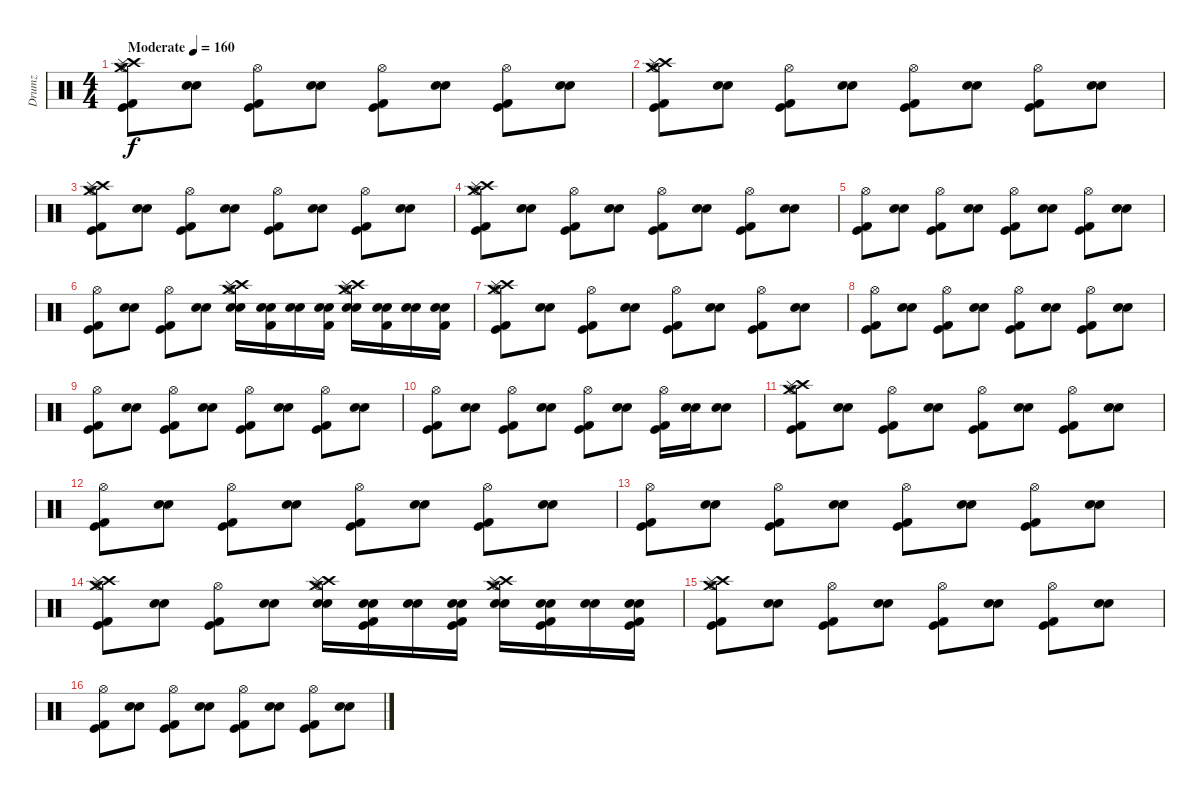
\track ("Drumz" "Drumz") {instrument percussion}
\staff {score}
\articulation defaults
\ts (4 4)
\tempo (160 "Moderate")
\clef neutral
\ks c
("Kick (hit)" "Kick (hit) 2" "Hi-Hat (open)" "Crash high (hit)" "Crash medium (hit)" "Splash (hit)").8{dy f} ("Electric Snare (hit)" "Snare (hit) 2").8 ("Kick (hit) 2" "Kick (hit)" "Hi-Hat (open)").8 ("Snare (hit) 2" "Electric Snare (hit)").8 ("Kick (hit) 2" "Kick (hit)" "Hi-Hat (open)").8 ("Electric Snare (hit)" "Snare (hit) 2").8 ("Kick (hit)" "Kick (hit) 2" "Hi-Hat (open)").8 ("Snare (hit) 2" "Electric Snare (hit)").8 |
("Kick (hit)" "Kick (hit) 2" "Hi-Hat (open)" "Crash high (hit)" "Splash (hit)" "Crash medium (hit)").8 ("Electric Snare (hit)" "Snare (hit) 2").8 ("Kick (hit) 2" "Kick (hit)" "Hi-Hat (open)").8 ("Snare (hit) 2" "Electric Snare (hit)").8 ("Kick (hit) 2" "Kick (hit)" "Hi-Hat (open)").8 ("Electric Snare (hit)" "Snare (hit) 2").8 ("Kick (hit)" "Kick (hit) 2" "Hi-Hat (open)").8 ("Snare (hit) 2" "Electric Snare (hit)").8 |
("Kick (hit)" "Kick (hit) 2" "Hi-Hat (open)" "Crash high (hit)" "Crash medium (hit)" "Splash (hit)").8 ("Electric Snare (hit)" "Snare (hit) 2").8 ("Kick (hit) 2" "Kick (hit)" "Hi-Hat (open)").8 ("Snare (hit) 2" "Electric Snare (hit)").8 ("Kick (hit) 2" "Kick (hit)" "Hi-Hat (open)").8 ("Electric Snare (hit)" "Snare (hit) 2").8 ("Kick (hit)" "Kick (hit) 2" "Hi-Hat (open)").8 ("Snare (hit) 2" "Electric Snare (hit)").8 |
("Kick (hit)" "Kick (hit) 2" "Hi-Hat (open)" "Crash high (hit)" "Splash (hit)" "Crash medium (hit)").8 ("Electric Snare (hit)" "Snare (hit) 2").8 ("Kick (hit) 2" "Kick (hit)" "Hi-Hat (open)").8 ("Snare (hit) 2" "Electric Snare (hit)").8 ("Kick (hit) 2" "Kick (hit)" "Hi-Hat (open)").8 ("Electric Snare (hit)" "Snare (hit) 2").8 ("Kick (hit)" "Kick (hit) 2" "Hi-Hat (open)").8 ("Snare (hit) 2" "Electric Snare (hit)").8 |
("Kick (hit)" "Kick (hit) 2" "Hi-Hat (open)").8 ("Electric Snare (hit)" "Snare (hit) 2").8 ("Kick (hit) 2" "Kick (hit)" "Hi-Hat (open)").8 ("Snare (hit) 2" "Electric Snare (hit)").8 ("Kick (hit) 2" "Kick (hit)" "Hi-Hat (open)").8 ("Electric Snare (hit)" "Snare (hit) 2").8 ("Kick (hit)" "Kick (hit) 2" "Hi-Hat (open)").8 ("Snare (hit) 2" "Electric Snare (hit)").8 |
("Kick (hit)" "Kick (hit) 2" "Hi-Hat (open)").8 ("Electric Snare (hit)" "Snare (hit) 2").8 ("Kick (hit) 2" "Kick (hit)" "Hi-Hat (open)").8 ("Snare (hit) 2" "Electric Snare (hit)").8 ("Hi-Hat (open)" "Crash high (hit)" "Electric Snare (hit)" "Snare (hit) 2" "Crash medium (hit)" "Splash (hit)").16 ("Snare (hit) 2" "Electric Snare (hit)" "Kick (hit) 2").16 ("Electric Snare (hit)" "Snare (hit) 2").16 ("Electric Snare (hit)" "Snare (hit) 2" "Kick (hit) 2").16 ("Hi-Hat (open)" "Crash high (hit)" "Electric Snare (hit)" "Snare (hit) 2" "Splash (hit)" "Crash medium (hit)").16 ("Electric Snare (hit)" "Snare (hit) 2" "Kick (hit) 2").16 ("Electric Snare (hit)" "Snare (hit) 2").16 ("Electric Snare (hit)" "Snare (hit) 2" "Kick (hit) 2").16 |
("Kick (hit)" "Kick (hit) 2" "Hi-Hat (open)" "Crash high (hit)" "Crash medium (hit)" "Splash (hit)").8{volume 12} ("Electric Snare (hit)" "Snare (hit) 2").8 ("Kick (hit) 2" "Kick (hit)" "Hi-Hat (open)").8 ("Snare (hit) 2" "Electric Snare (hit)").8 ("Kick (hit) 2" "Kick (hit)" "Hi-Hat (open)").8 ("Electric Snare (hit)" "Snare (hit) 2").8 ("Kick (hit)" "Kick (hit) 2" "Hi-Hat (open)").8 ("Snare (hit) 2" "Electric Snare (hit)").8 |
("Kick (hit)" "Kick (hit) 2" "Hi-Hat (open)").8 ("Electric Snare (hit)" "Snare (hit) 2").8 ("Kick (hit) 2" "Kick (hit)" "Hi-Hat (open)").8 ("Snare (hit) 2" "Electric Snare (hit)").8 ("Kick (hit) 2" "Kick (hit)" "Hi-Hat (open)").8 ("Electric Snare (hit)" "Snare (hit) 2").8 ("Kick (hit)" "Kick (hit) 2" "Hi-Hat (open)").8 ("Snare (hit) 2" "Electric Snare (hit)").8 |
("Kick (hit)" "Kick (hit) 2" "Hi-Hat (open)").8 ("Electric Snare (hit)" "Snare (hit) 2").8 ("Kick (hit) 2" "Kick (hit)" "Hi-Hat (open)").8 ("Snare (hit) 2" "Electric Snare (hit)").8 ("Kick (hit) 2" "Kick (hit)" "Hi-Hat (open)").8 ("Electric Snare (hit)" "Snare (hit) 2").8 ("Kick (hit)" "Kick (hit) 2" "Hi-Hat (open)").8 ("Snare (hit) 2" "Electric Snare (hit)").8 |
("Kick (hit)" "Kick (hit) 2" "Hi-Hat (open)").8 ("Electric Snare (hit)" "Snare (hit) 2").8 ("Kick (hit) 2" "Kick (hit)" "Hi-Hat (open)").8 ("Snare (hit) 2" "Electric Snare (hit)").8 ("Kick (hit) 2" "Kick (hit)" "Hi-Hat (open)").8 ("Electric Snare (hit)" "Snare (hit) 2").8 ("Kick (hit)" "Kick (hit) 2" "Hi-Hat (open)").16 ("Snare (hit) 2" "Electric Snare (hit)").16 ("Snare (hit) 2" "Electric Snare (hit)").8 |
("Kick (hit)" "Kick (hit) 2" "Hi-Hat (open)" "Crash high (hit)" "Crash medium (hit)" "Splash (hit)").8{volume 12} ("Electric Snare (hit)" "Snare (hit) 2").8 ("Kick (hit) 2" "Kick (hit)" "Hi-Hat (open)").8 ("Snare (hit) 2" "Electric Snare (hit)").8 ("Kick (hit) 2" "Kick (hit)" "Hi-Hat (open)").8 ("Electric Snare (hit)" "Snare (hit) 2").8 ("Kick (hit)" "Kick (hit) 2" "Hi-Hat (open)").8 ("Snare (hit) 2" "Electric Snare (hit)").8 |
("Kick (hit)" "Kick (hit) 2" "Hi-Hat (open)").8 ("Electric Snare (hit)" "Snare (hit) 2").8 ("Kick (hit) 2" "Kick (hit)" "Hi-Hat (open)").8 ("Snare (hit) 2" "Electric Snare (hit)").8 ("Kick (hit) 2" "Kick (hit)" "Hi-Hat (open)").8 ("Electric Snare (hit)" "Snare (hit) 2").8 ("Kick (hit)" "Kick (hit) 2" "Hi-Hat (open)").8 ("Snare (hit) 2" "Electric Snare (hit)").8 |
("Kick (hit)" "Kick (hit) 2" "Hi-Hat (open)").8 ("Electric Snare (hit)" "Snare (hit) 2").8 ("Kick (hit) 2" "Kick (hit)" "Hi-Hat (open)").8 ("Snare (hit) 2" "Electric Snare (hit)").8 ("Kick (hit) 2" "Kick (hit)" "Hi-Hat (open)").8 ("Electric Snare (hit)" "Snare (hit) 2").8 ("Kick (hit)" "Kick (hit) 2" "Hi-Hat (open)").8 ("Snare (hit) 2" "Electric Snare (hit)").8 |
("Kick (hit)" "Kick (hit) 2" "Hi-Hat (open)" "Crash high (hit)" "Splash (hit)" "Crash medium (hit)").8 ("Electric Snare (hit)" "Snare (hit) 2").8 ("Kick (hit) 2" "Kick (hit)" "Hi-Hat (open)").8 ("Snare (hit) 2" "Electric Snare (hit)").8 ("Crash medium (hit)" "Electric Snare (hit)" "Hi-Hat (open)" "Crash high (hit)" "Splash (hit)" "Snare (hit) 2").16 ("Kick (hit) 2" "Kick (hit)" "Electric Snare (hit)" "Snare (hit) 2").16 ("Electric Snare (hit)" "Snare (hit) 2").16 ("Snare (hit) 2" "Electric Snare (hit)" "Kick (hit) 2" "Kick (hit)").16 ("Crash medium (hit)" "Snare (hit) 2" "Hi-Hat (open)" "Crash high (hit)" "Splash (hit)" "Electric Snare (hit)").16 ("Kick (hit)" "Kick (hit) 2" "Snare (hit) 2" "Electric Snare (hit)").16 ("Snare (hit) 2" "Electric Snare (hit)").16 ("Electric Snare (hit)" "Snare (hit) 2" "Kick (hit) 2" "Kick (hit)").16 |
("Kick (hit)" "Kick (hit) 2" "Hi-Hat (open)" "Crash high (hit)" "Crash medium (hit)" "Splash (hit)").8{volume 12} ("Electric Snare (hit)" "Snare (hit) 2").8 ("Kick (hit) 2" "Kick (hit)" "Hi-Hat (open)").8 ("Snare (hit) 2" "Electric Snare (hit)").8 ("Kick (hit) 2" "Kick (hit)" "Hi-Hat (open)").8 ("Electric Snare (hit)" "Snare (hit) 2").8 ("Kick (hit)" "Kick (hit) 2" "Hi-Hat (open)").8 ("Snare (hit) 2" "Electric Snare (hit)").8 |
("Kick (hit)" "Kick (hit) 2" "Hi-Hat (open)").8 ("Electric Snare (hit)" "Snare (hit) 2").8 ("Kick (hit) 2" "Kick (hit)" "Hi-Hat (open)").8 ("Snare (hit) 2" "Electric Snare (hit)").8 ("Kick (hit) 2" "Kick (hit)" "Hi-Hat (open)").8 ("Electric Snare (hit)" "Snare (hit) 2").8 ("Kick (hit)" "Kick (hit) 2" "Hi-Hat (open)").8 ("Snare (hit) 2" "Electric Snare (hit)").8
